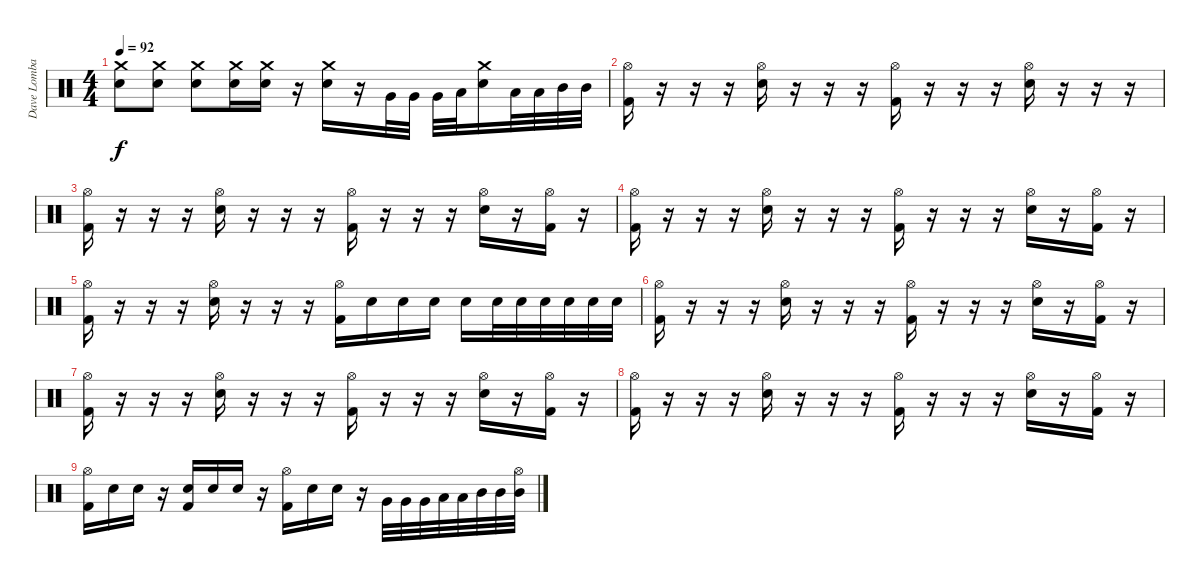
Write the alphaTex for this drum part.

\track ("Dave Lombardo" "Dave Lomba") {instrument percussion}
\staff {score}
\articulation defaults
\ts (4 4)
\tempo 92
\clef neutral
\ks c
("Crash medium (hit)" "Electric Snare (hit)").8{dy f} ("Crash medium (hit)" "Electric Snare (hit)").8 ("Crash medium (hit)" "Electric Snare (hit)").8 ("Crash medium (hit)" "Electric Snare (hit)").16 ("Crash medium (hit)" "Electric Snare (hit)").16 r.16 ("Crash medium (hit)" "Electric Snare (hit)").16 r.16 "Very Low Tom (hit)".32 "Very Low Tom (hit)".32 "Very Low Tom (hit)".32 "Low Tom (hit)".32 ("Electric Snare (hit)" "Crash medium (hit)").16 "Low Tom (hit)".32 "Low Tom (hit)".32 "Mid Tom (hit)".32 "Mid Tom (hit)".32 |
("Kick (hit) 2" "Hi-Hat (open)").16 r.16 r.16 r.16 ("Electric Snare (hit)" "Hi-Hat (open)").16 r.16 r.16 r.16 ("Kick (hit) 2" "Hi-Hat (open)").16 r.16 r.16 r.16 ("Electric Snare (hit)" "Hi-Hat (open)").16 r.16 r.16 r.16 |
("Kick (hit) 2" "Hi-Hat (open)").16 r.16 r.16 r.16 ("Electric Snare (hit)" "Hi-Hat (open)").16 r.16 r.16 r.16 ("Kick (hit) 2" "Hi-Hat (open)").16 r.16 r.16 r.16 ("Electric Snare (hit)" "Hi-Hat (open)").16 r.16 ("Kick (hit) 2" "Hi-Hat (open)").16 r.16 |
("Kick (hit) 2" "Hi-Hat (open)").16 r.16 r.16 r.16 ("Electric Snare (hit)" "Hi-Hat (open)").16 r.16 r.16 r.16 ("Kick (hit) 2" "Hi-Hat (open)").16 r.16 r.16 r.16 ("Electric Snare (hit)" "Hi-Hat (open)").16 r.16 ("Kick (hit) 2" "Hi-Hat (open)").16 r.16 |
("Kick (hit) 2" "Hi-Hat (open)").16 r.16 r.16 r.16 ("Electric Snare (hit)" "Hi-Hat (open)").16 r.16 r.16 r.16 ("Kick (hit) 2" "Hi-Hat (open)").16 "Electric Snare (hit)".16 "Electric Snare (hit)".16 "Electric Snare (hit)".16 "Electric Snare (hit)".16 "Electric Snare (hit)".32 "Electric Snare (hit)".32 "Electric Snare (hit)".32 "Electric Snare (hit)".32 "Electric Snare (hit)".32 "Electric Snare (hit)".32 |
("Kick (hit) 2" "Hi-Hat (open)").16 r.16 r.16 r.16 ("Electric Snare (hit)" "Hi-Hat (open)").16 r.16 r.16 r.16 ("Kick (hit) 2" "Hi-Hat (open)").16 r.16 r.16 r.16 ("Electric Snare (hit)" "Hi-Hat (open)").16 r.16 ("Kick (hit) 2" "Hi-Hat (open)").16 r.16 |
("Kick (hit) 2" "Hi-Hat (open)").16 r.16 r.16 r.16 ("Electric Snare (hit)" "Hi-Hat (open)").16 r.16 r.16 r.16 ("Kick (hit) 2" "Hi-Hat (open)").16 r.16 r.16 r.16 ("Electric Snare (hit)" "Hi-Hat (open)").16 r.16 ("Kick (hit) 2" "Hi-Hat (open)").16 r.16 |
("Kick (hit) 2" "Hi-Hat (open)").16 r.16 r.16 r.16 ("Electric Snare (hit)" "Hi-Hat (open)").16 r.16 r.16 r.16 ("Kick (hit) 2" "Hi-Hat (open)").16 r.16 r.16 r.16 ("Electric Snare (hit)" "Hi-Hat (open)").16 r.16 ("Kick (hit) 2" "Hi-Hat (open)").16 r.16 |
("Kick (hit) 2" "Hi-Hat (open)").16 "Electric Snare (hit)".16 "Electric Snare (hit)".16 r.16 ("Kick (hit) 2" "Electric Snare (hit)").16 "Electric Snare (hit)".16 "Electric Snare (hit)".16 r.16 ("Kick (hit) 2" "Hi-Hat (open)").16 "Electric Snare (hit)".16 "Electric Snare (hit)".16 r.16 "Very Low Tom (hit)".32 "Very Low Tom (hit)".32 "Very Low Tom (hit)".32 "Low Tom (hit)".32 "Low Tom (hit)".32 "Mid Tom (hit)".32 "Mid Tom (hit)".32 ("Mid Tom (hit)" "Hi-Hat (open)").32
